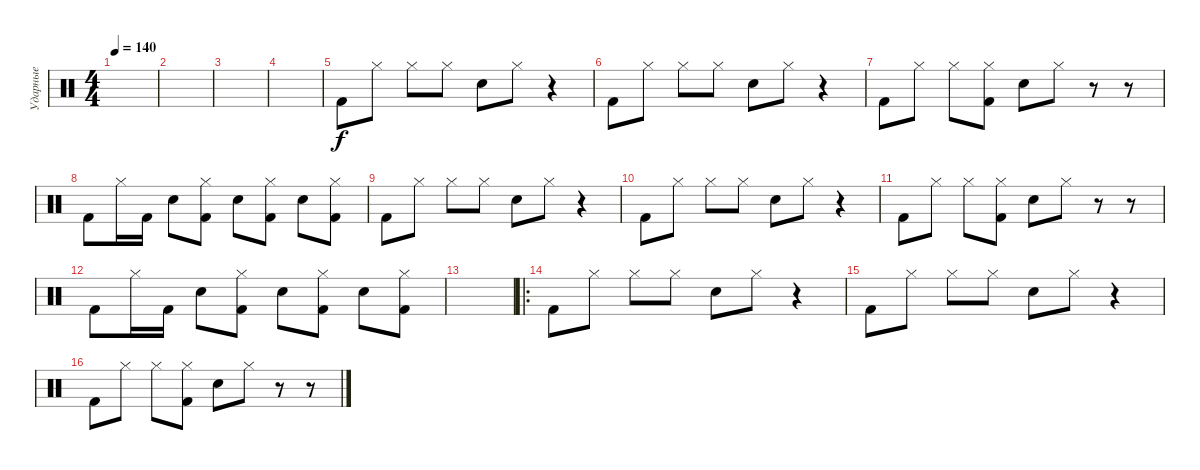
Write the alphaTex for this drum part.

\track ("Ударные" "Ударные") {instrument percussion}
\staff {score}
\articulation defaults
\ts (4 4)
\tempo 140
\clef neutral
\ks c
|
|
|
|
"Kick (hit) 2".8 "Hi-Hat (closed)".8 "Hi-Hat (closed)".8 "Hi-Hat (closed)".8 "Snare (hit) 2".8 "Hi-Hat (closed)".8 r.4 |
"Kick (hit) 2".8 "Hi-Hat (closed)".8 "Hi-Hat (closed)".8 "Hi-Hat (closed)".8 "Snare (hit) 2".8 "Hi-Hat (closed)".8 r.4 |
"Kick (hit) 2".8 "Hi-Hat (closed)".8 "Hi-Hat (closed)".8 ("Hi-Hat (closed)" "Kick (hit) 2").8 "Snare (hit) 2".8 "Hi-Hat (closed)".8 r.8 r.8 |
"Kick (hit) 2".8 "Hi-Hat (closed)".16 "Kick (hit) 2".16 "Snare (hit) 2".8 ("Hi-Hat (closed)" "Kick (hit) 2").8 "Snare (hit) 2".8 ("Hi-Hat (closed)" "Kick (hit) 2").8 "Snare (hit) 2".8 ("Hi-Hat (closed)" "Kick (hit) 2").8 |
"Kick (hit) 2".8 "Hi-Hat (closed)".8 "Hi-Hat (closed)".8 "Hi-Hat (closed)".8 "Snare (hit) 2".8 "Hi-Hat (closed)".8 r.4 |
"Kick (hit) 2".8 "Hi-Hat (closed)".8 "Hi-Hat (closed)".8 "Hi-Hat (closed)".8 "Snare (hit) 2".8 "Hi-Hat (closed)".8 r.4 |
"Kick (hit) 2".8 "Hi-Hat (closed)".8 "Hi-Hat (closed)".8 ("Hi-Hat (closed)" "Kick (hit) 2").8 "Snare (hit) 2".8 "Hi-Hat (closed)".8 r.8 r.8 |
"Kick (hit) 2".8 "Hi-Hat (closed)".16 "Kick (hit) 2".16 "Snare (hit) 2".8 ("Hi-Hat (closed)" "Kick (hit) 2").8 "Snare (hit) 2".8 ("Hi-Hat (closed)" "Kick (hit) 2").8 "Snare (hit) 2".8 ("Hi-Hat (closed)" "Kick (hit) 2").8 |
|
\ro "Kick (hit) 2".8 "Hi-Hat (closed)".8 "Hi-Hat (closed)".8 "Hi-Hat (closed)".8 "Snare (hit) 2".8 "Hi-Hat (closed)".8
r.4 |
"Kick (hit) 2".8 "Hi-Hat (closed)".8 "Hi-Hat (closed)".8 "Hi-Hat (closed)".8 "Snare (hit) 2".8 "Hi-Hat (closed)".8 r.4 |
"Kick (hit) 2".8 "Hi-Hat (closed)".8 "Hi-Hat (closed)".8 ("Hi-Hat (closed)" "Kick (hit) 2").8 "Snare (hit) 2".8 "Hi-Hat (closed)".8 r.8 r.8
